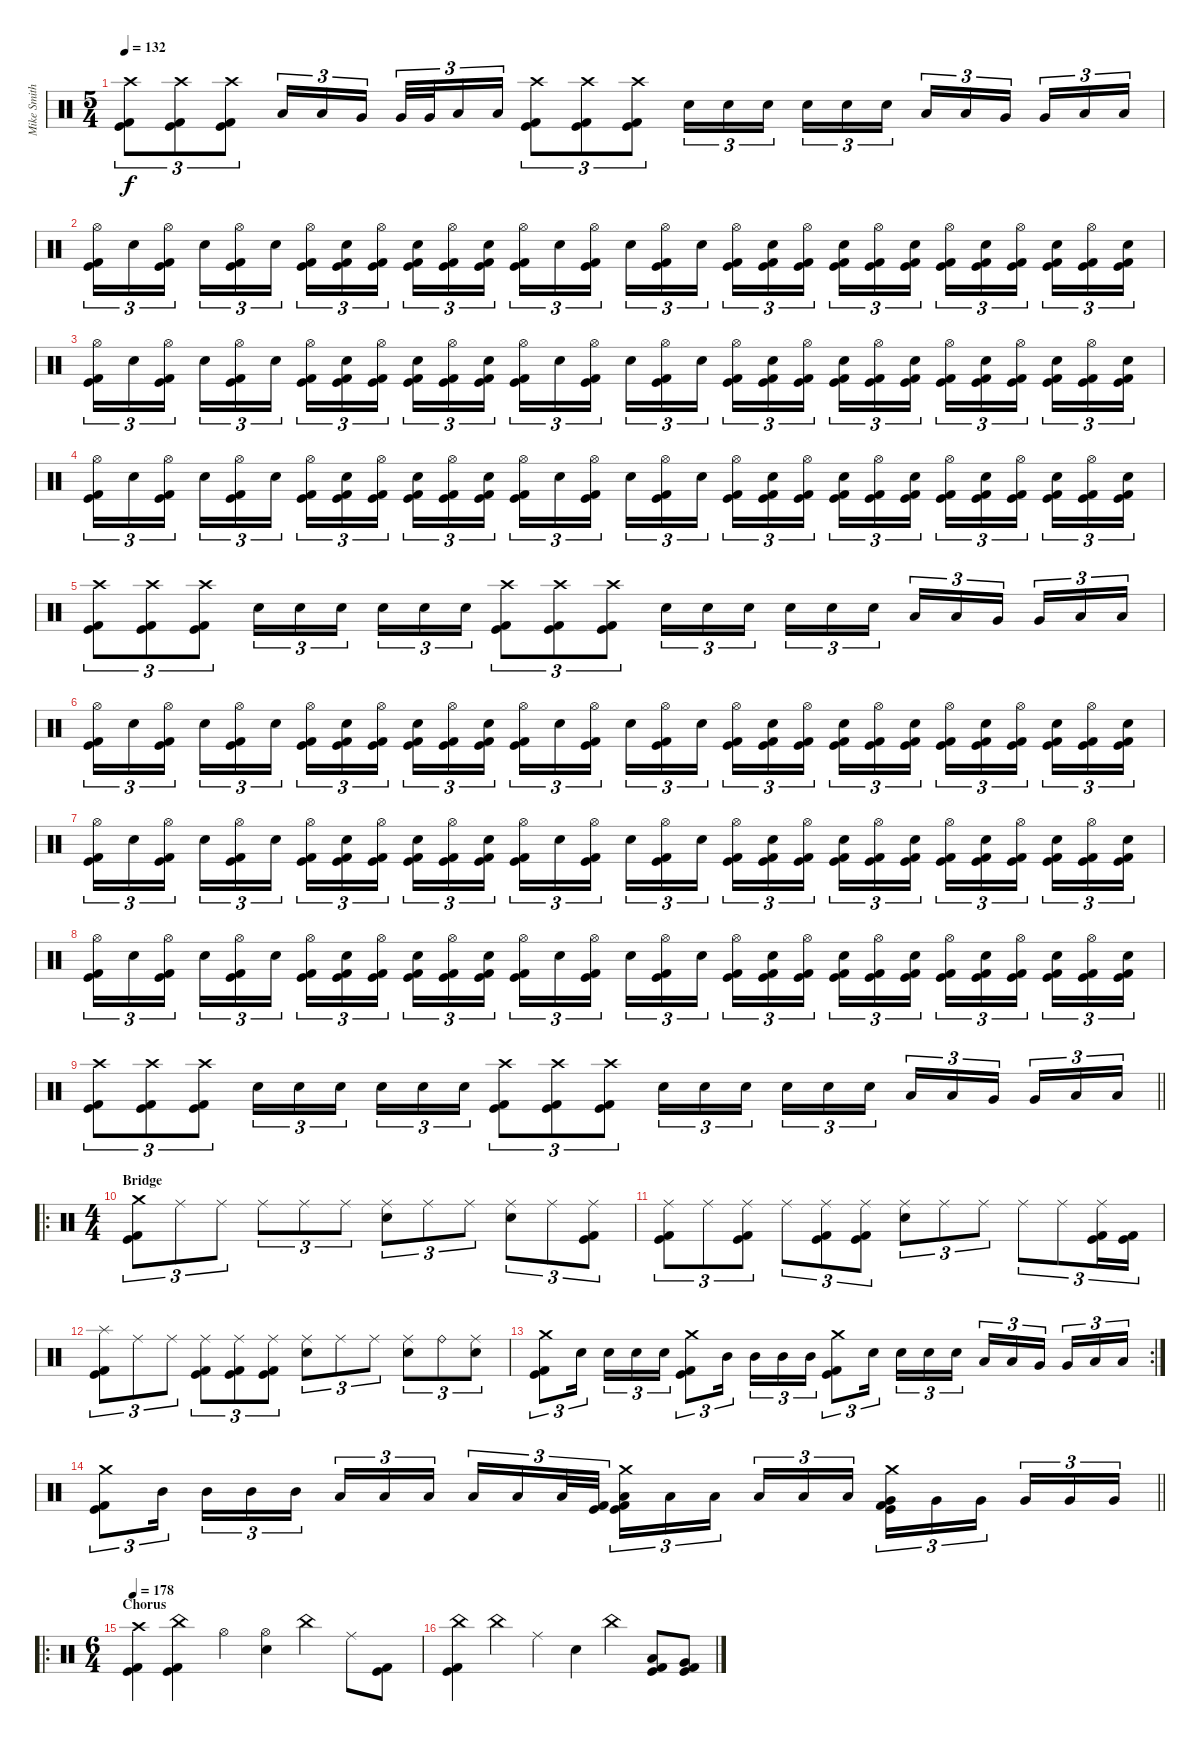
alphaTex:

\track ("Mike Smith" "Mike Smith") {instrument percussion}
\staff {score}
\articulation defaults
\ts (5 4)
\tempo 132
\clef neutral
\ks c
("Crash high (hit)" "Kick (hit)" "Kick (hit) 2").8{tu (3 2) dy f} ("Crash high (hit)" "Kick (hit)" "Kick (hit) 2").8{tu (3 2)} ("Crash high (hit)" "Kick (hit)" "Kick (hit) 2").8{tu (3 2)} "Low Tom (hit)".16{tu (3 2)} "Low Tom (hit)".16{tu (3 2)} "Very Low Tom (hit)".16{tu (3 2) beam splitsecondary} "Very Low Tom (hit)".32{tu (3 2)} "Very Low Tom (hit)".32{tu (3 2)} "Low Floor Tom (hit)".16{tu (3 2)} "Low Floor Tom (hit)".16{tu (3 2)} ("Crash high (hit)" "Kick (hit)" "Kick (hit) 2").8{tu (3 2)} ("Crash high (hit)" "Kick (hit)" "Kick (hit) 2").8{tu (3 2)} ("Crash high (hit)" "Kick (hit)" "Kick (hit) 2").8{tu (3 2)} "Electric Snare (hit)".16{tu (3 2)} "Electric Snare (hit)".16{tu (3 2)} "Electric Snare (hit)".16{tu (3 2) beam splitsecondary} "Electric Snare (hit)".16{tu (3 2)} "Electric Snare (hit)".16{tu (3 2)} "Electric Snare (hit)".16{tu (3 2)} "Low Tom (hit)".16{tu (3 2)} "Low Tom (hit)".16{tu (3 2)} "Very Low Tom (hit)".16{tu (3 2) beam splitsecondary} "Very Low Tom (hit)".16{tu (3 2)} "Low Floor Tom (hit)".16{tu (3 2)} "Low Floor Tom (hit)".16{tu (3 2)} |
("Hi-Hat (open)" "Kick (hit)" "Kick (hit) 2").16{tu (3 2)} "Electric Snare (hit)".16{tu (3 2)} ("Hi-Hat (open)" "Kick (hit)" "Kick (hit) 2").16{tu (3 2) beam splitsecondary} "Electric Snare (hit)".16{tu (3 2)} ("Hi-Hat (open)" "Kick (hit)" "Kick (hit) 2").16{tu (3 2)} "Electric Snare (hit)".16{tu (3 2)} ("Hi-Hat (open)" "Kick (hit)" "Kick (hit) 2").16{tu (3 2)} ("Electric Snare (hit)" "Kick (hit)" "Kick (hit) 2").16{tu (3 2)} ("Hi-Hat (open)" "Kick (hit)" "Kick (hit) 2").16{tu (3 2) beam splitsecondary} ("Electric Snare (hit)" "Kick (hit)" "Kick (hit) 2").16{tu (3 2)} ("Hi-Hat (open)" "Kick (hit)" "Kick (hit) 2").16{tu (3 2)} ("Electric Snare (hit)" "Kick (hit)" "Kick (hit) 2").16{tu (3 2)} ("Hi-Hat (open)" "Kick (hit)" "Kick (hit) 2").16{tu (3 2)} "Electric Snare (hit)".16{tu (3 2)} ("Hi-Hat (open)" "Kick (hit)" "Kick (hit) 2").16{tu (3 2) beam splitsecondary} "Electric Snare (hit)".16{tu (3 2)} ("Hi-Hat (open)" "Kick (hit)" "Kick (hit) 2").16{tu (3 2)} "Electric Snare (hit)".16{tu (3 2)} ("Hi-Hat (open)" "Kick (hit)" "Kick (hit) 2").16{tu (3 2)} ("Electric Snare (hit)" "Kick (hit)" "Kick (hit) 2").16{tu (3 2)} ("Hi-Hat (open)" "Kick (hit)" "Kick (hit) 2").16{tu (3 2) beam splitsecondary} ("Electric Snare (hit)" "Kick (hit)" "Kick (hit) 2").16{tu (3 2)} ("Hi-Hat (open)" "Kick (hit)" "Kick (hit) 2").16{tu (3 2)} ("Electric Snare (hit)" "Kick (hit)" "Kick (hit) 2").16{tu (3 2)} ("Hi-Hat (open)" "Kick (hit)" "Kick (hit) 2").16{tu (3 2)} ("Electric Snare (hit)" "Kick (hit)" "Kick (hit) 2").16{tu (3 2)} ("Hi-Hat (open)" "Kick (hit)" "Kick (hit) 2").16{tu (3 2) beam splitsecondary} ("Electric Snare (hit)" "Kick (hit)" "Kick (hit) 2").16{tu (3 2)} ("Hi-Hat (open)" "Kick (hit)" "Kick (hit) 2").16{tu (3 2)} ("Electric Snare (hit)" "Kick (hit)" "Kick (hit) 2").16{tu (3 2)} |
("Hi-Hat (open)" "Kick (hit)" "Kick (hit) 2").16{tu (3 2)} "Electric Snare (hit)".16{tu (3 2)} ("Hi-Hat (open)" "Kick (hit)" "Kick (hit) 2").16{tu (3 2) beam splitsecondary} "Electric Snare (hit)".16{tu (3 2)} ("Hi-Hat (open)" "Kick (hit)" "Kick (hit) 2").16{tu (3 2)} "Electric Snare (hit)".16{tu (3 2)} ("Hi-Hat (open)" "Kick (hit)" "Kick (hit) 2").16{tu (3 2)} ("Electric Snare (hit)" "Kick (hit)" "Kick (hit) 2").16{tu (3 2)} ("Hi-Hat (open)" "Kick (hit)" "Kick (hit) 2").16{tu (3 2) beam splitsecondary} ("Electric Snare (hit)" "Kick (hit)" "Kick (hit) 2").16{tu (3 2)} ("Hi-Hat (open)" "Kick (hit)" "Kick (hit) 2").16{tu (3 2)} ("Electric Snare (hit)" "Kick (hit)" "Kick (hit) 2").16{tu (3 2)} ("Hi-Hat (open)" "Kick (hit)" "Kick (hit) 2").16{tu (3 2)} "Electric Snare (hit)".16{tu (3 2)} ("Hi-Hat (open)" "Kick (hit)" "Kick (hit) 2").16{tu (3 2) beam splitsecondary} "Electric Snare (hit)".16{tu (3 2)} ("Hi-Hat (open)" "Kick (hit)" "Kick (hit) 2").16{tu (3 2)} "Electric Snare (hit)".16{tu (3 2)} ("Hi-Hat (open)" "Kick (hit)" "Kick (hit) 2").16{tu (3 2)} ("Electric Snare (hit)" "Kick (hit)" "Kick (hit) 2").16{tu (3 2)} ("Hi-Hat (open)" "Kick (hit)" "Kick (hit) 2").16{tu (3 2) beam splitsecondary} ("Electric Snare (hit)" "Kick (hit)" "Kick (hit) 2").16{tu (3 2)} ("Hi-Hat (open)" "Kick (hit)" "Kick (hit) 2").16{tu (3 2)} ("Electric Snare (hit)" "Kick (hit)" "Kick (hit) 2").16{tu (3 2)} ("Hi-Hat (open)" "Kick (hit)" "Kick (hit) 2").16{tu (3 2)} ("Electric Snare (hit)" "Kick (hit)" "Kick (hit) 2").16{tu (3 2)} ("Hi-Hat (open)" "Kick (hit)" "Kick (hit) 2").16{tu (3 2) beam splitsecondary} ("Electric Snare (hit)" "Kick (hit)" "Kick (hit) 2").16{tu (3 2)} ("Hi-Hat (open)" "Kick (hit)" "Kick (hit) 2").16{tu (3 2)} ("Electric Snare (hit)" "Kick (hit)" "Kick (hit) 2").16{tu (3 2)} |
("Hi-Hat (open)" "Kick (hit)" "Kick (hit) 2").16{tu (3 2)} "Electric Snare (hit)".16{tu (3 2)} ("Hi-Hat (open)" "Kick (hit)" "Kick (hit) 2").16{tu (3 2) beam splitsecondary} "Electric Snare (hit)".16{tu (3 2)} ("Hi-Hat (open)" "Kick (hit)" "Kick (hit) 2").16{tu (3 2)} "Electric Snare (hit)".16{tu (3 2)} ("Hi-Hat (open)" "Kick (hit)" "Kick (hit) 2").16{tu (3 2)} ("Electric Snare (hit)" "Kick (hit)" "Kick (hit) 2").16{tu (3 2)} ("Hi-Hat (open)" "Kick (hit)" "Kick (hit) 2").16{tu (3 2) beam splitsecondary} ("Electric Snare (hit)" "Kick (hit)" "Kick (hit) 2").16{tu (3 2)} ("Hi-Hat (open)" "Kick (hit)" "Kick (hit) 2").16{tu (3 2)} ("Electric Snare (hit)" "Kick (hit)" "Kick (hit) 2").16{tu (3 2)} ("Hi-Hat (open)" "Kick (hit)" "Kick (hit) 2").16{tu (3 2)} "Electric Snare (hit)".16{tu (3 2)} ("Hi-Hat (open)" "Kick (hit)" "Kick (hit) 2").16{tu (3 2) beam splitsecondary} "Electric Snare (hit)".16{tu (3 2)} ("Hi-Hat (open)" "Kick (hit)" "Kick (hit) 2").16{tu (3 2)} "Electric Snare (hit)".16{tu (3 2)} ("Hi-Hat (open)" "Kick (hit)" "Kick (hit) 2").16{tu (3 2)} ("Electric Snare (hit)" "Kick (hit)" "Kick (hit) 2").16{tu (3 2)} ("Hi-Hat (open)" "Kick (hit)" "Kick (hit) 2").16{tu (3 2) beam splitsecondary} ("Electric Snare (hit)" "Kick (hit)" "Kick (hit) 2").16{tu (3 2)} ("Hi-Hat (open)" "Kick (hit)" "Kick (hit) 2").16{tu (3 2)} ("Electric Snare (hit)" "Kick (hit)" "Kick (hit) 2").16{tu (3 2)} ("Hi-Hat (open)" "Kick (hit)" "Kick (hit) 2").16{tu (3 2)} ("Electric Snare (hit)" "Kick (hit)" "Kick (hit) 2").16{tu (3 2)} ("Hi-Hat (open)" "Kick (hit)" "Kick (hit) 2").16{tu (3 2) beam splitsecondary} ("Electric Snare (hit)" "Kick (hit)" "Kick (hit) 2").16{tu (3 2)} ("Hi-Hat (open)" "Kick (hit)" "Kick (hit) 2").16{tu (3 2)} ("Electric Snare (hit)" "Kick (hit)" "Kick (hit) 2").16{tu (3 2)} |
("Crash high (hit)" "Kick (hit)" "Kick (hit) 2").8{tu (3 2)} ("Crash high (hit)" "Kick (hit)" "Kick (hit) 2").8{tu (3 2)} ("Crash high (hit)" "Kick (hit)" "Kick (hit) 2").8{tu (3 2)} "Electric Snare (hit)".16{tu (3 2)} "Electric Snare (hit)".16{tu (3 2)} "Electric Snare (hit)".16{tu (3 2) beam splitsecondary} "Electric Snare (hit)".16{tu (3 2)} "Electric Snare (hit)".16{tu (3 2)} "Electric Snare (hit)".16{tu (3 2)} ("Crash high (hit)" "Kick (hit)" "Kick (hit) 2").8{tu (3 2)} ("Crash high (hit)" "Kick (hit)" "Kick (hit) 2").8{tu (3 2)} ("Crash high (hit)" "Kick (hit)" "Kick (hit) 2").8{tu (3 2)} "Electric Snare (hit)".16{tu (3 2)} "Electric Snare (hit)".16{tu (3 2)} "Electric Snare (hit)".16{tu (3 2) beam splitsecondary} "Electric Snare (hit)".16{tu (3 2)} "Electric Snare (hit)".16{tu (3 2)} "Electric Snare (hit)".16{tu (3 2)} "Low Tom (hit)".16{tu (3 2)} "Low Tom (hit)".16{tu (3 2)} "Very Low Tom (hit)".16{tu (3 2) beam splitsecondary} "Very Low Tom (hit)".16{tu (3 2)} "Low Floor Tom (hit)".16{tu (3 2)} "Low Floor Tom (hit)".16{tu (3 2)} |
("Hi-Hat (open)" "Kick (hit)" "Kick (hit) 2").16{tu (3 2)} "Electric Snare (hit)".16{tu (3 2)} ("Hi-Hat (open)" "Kick (hit)" "Kick (hit) 2").16{tu (3 2) beam splitsecondary} "Electric Snare (hit)".16{tu (3 2)} ("Hi-Hat (open)" "Kick (hit)" "Kick (hit) 2").16{tu (3 2)} "Electric Snare (hit)".16{tu (3 2)} ("Hi-Hat (open)" "Kick (hit)" "Kick (hit) 2").16{tu (3 2)} ("Electric Snare (hit)" "Kick (hit)" "Kick (hit) 2").16{tu (3 2)} ("Hi-Hat (open)" "Kick (hit)" "Kick (hit) 2").16{tu (3 2) beam splitsecondary} ("Electric Snare (hit)" "Kick (hit)" "Kick (hit) 2").16{tu (3 2)} ("Hi-Hat (open)" "Kick (hit)" "Kick (hit) 2").16{tu (3 2)} ("Electric Snare (hit)" "Kick (hit)" "Kick (hit) 2").16{tu (3 2)} ("Hi-Hat (open)" "Kick (hit)" "Kick (hit) 2").16{tu (3 2)} "Electric Snare (hit)".16{tu (3 2)} ("Hi-Hat (open)" "Kick (hit)" "Kick (hit) 2").16{tu (3 2) beam splitsecondary} "Electric Snare (hit)".16{tu (3 2)} ("Hi-Hat (open)" "Kick (hit)" "Kick (hit) 2").16{tu (3 2)} "Electric Snare (hit)".16{tu (3 2)} ("Hi-Hat (open)" "Kick (hit)" "Kick (hit) 2").16{tu (3 2)} ("Electric Snare (hit)" "Kick (hit)" "Kick (hit) 2").16{tu (3 2)} ("Hi-Hat (open)" "Kick (hit)" "Kick (hit) 2").16{tu (3 2) beam splitsecondary} ("Electric Snare (hit)" "Kick (hit)" "Kick (hit) 2").16{tu (3 2)} ("Hi-Hat (open)" "Kick (hit)" "Kick (hit) 2").16{tu (3 2)} ("Electric Snare (hit)" "Kick (hit)" "Kick (hit) 2").16{tu (3 2)} ("Hi-Hat (open)" "Kick (hit)" "Kick (hit) 2").16{tu (3 2)} ("Electric Snare (hit)" "Kick (hit)" "Kick (hit) 2").16{tu (3 2)} ("Hi-Hat (open)" "Kick (hit)" "Kick (hit) 2").16{tu (3 2) beam splitsecondary} ("Electric Snare (hit)" "Kick (hit)" "Kick (hit) 2").16{tu (3 2)} ("Hi-Hat (open)" "Kick (hit)" "Kick (hit) 2").16{tu (3 2)} ("Electric Snare (hit)" "Kick (hit)" "Kick (hit) 2").16{tu (3 2)} |
("Hi-Hat (open)" "Kick (hit)" "Kick (hit) 2").16{tu (3 2)} "Electric Snare (hit)".16{tu (3 2)} ("Hi-Hat (open)" "Kick (hit)" "Kick (hit) 2").16{tu (3 2) beam splitsecondary} "Electric Snare (hit)".16{tu (3 2)} ("Hi-Hat (open)" "Kick (hit)" "Kick (hit) 2").16{tu (3 2)} "Electric Snare (hit)".16{tu (3 2)} ("Hi-Hat (open)" "Kick (hit)" "Kick (hit) 2").16{tu (3 2)} ("Electric Snare (hit)" "Kick (hit)" "Kick (hit) 2").16{tu (3 2)} ("Hi-Hat (open)" "Kick (hit)" "Kick (hit) 2").16{tu (3 2) beam splitsecondary} ("Electric Snare (hit)" "Kick (hit)" "Kick (hit) 2").16{tu (3 2)} ("Hi-Hat (open)" "Kick (hit)" "Kick (hit) 2").16{tu (3 2)} ("Electric Snare (hit)" "Kick (hit)" "Kick (hit) 2").16{tu (3 2)} ("Hi-Hat (open)" "Kick (hit)" "Kick (hit) 2").16{tu (3 2)} "Electric Snare (hit)".16{tu (3 2)} ("Hi-Hat (open)" "Kick (hit)" "Kick (hit) 2").16{tu (3 2) beam splitsecondary} "Electric Snare (hit)".16{tu (3 2)} ("Hi-Hat (open)" "Kick (hit)" "Kick (hit) 2").16{tu (3 2)} "Electric Snare (hit)".16{tu (3 2)} ("Hi-Hat (open)" "Kick (hit)" "Kick (hit) 2").16{tu (3 2)} ("Electric Snare (hit)" "Kick (hit)" "Kick (hit) 2").16{tu (3 2)} ("Hi-Hat (open)" "Kick (hit)" "Kick (hit) 2").16{tu (3 2) beam splitsecondary} ("Electric Snare (hit)" "Kick (hit)" "Kick (hit) 2").16{tu (3 2)} ("Hi-Hat (open)" "Kick (hit)" "Kick (hit) 2").16{tu (3 2)} ("Electric Snare (hit)" "Kick (hit)" "Kick (hit) 2").16{tu (3 2)} ("Hi-Hat (open)" "Kick (hit)" "Kick (hit) 2").16{tu (3 2)} ("Electric Snare (hit)" "Kick (hit)" "Kick (hit) 2").16{tu (3 2)} ("Hi-Hat (open)" "Kick (hit)" "Kick (hit) 2").16{tu (3 2) beam splitsecondary} ("Electric Snare (hit)" "Kick (hit)" "Kick (hit) 2").16{tu (3 2)} ("Hi-Hat (open)" "Kick (hit)" "Kick (hit) 2").16{tu (3 2)} ("Electric Snare (hit)" "Kick (hit)" "Kick (hit) 2").16{tu (3 2)} |
("Hi-Hat (open)" "Kick (hit)" "Kick (hit) 2").16{tu (3 2)} "Electric Snare (hit)".16{tu (3 2)} ("Hi-Hat (open)" "Kick (hit)" "Kick (hit) 2").16{tu (3 2) beam splitsecondary} "Electric Snare (hit)".16{tu (3 2)} ("Hi-Hat (open)" "Kick (hit)" "Kick (hit) 2").16{tu (3 2)} "Electric Snare (hit)".16{tu (3 2)} ("Hi-Hat (open)" "Kick (hit)" "Kick (hit) 2").16{tu (3 2)} ("Electric Snare (hit)" "Kick (hit)" "Kick (hit) 2").16{tu (3 2)} ("Hi-Hat (open)" "Kick (hit)" "Kick (hit) 2").16{tu (3 2) beam splitsecondary} ("Electric Snare (hit)" "Kick (hit)" "Kick (hit) 2").16{tu (3 2)} ("Hi-Hat (open)" "Kick (hit)" "Kick (hit) 2").16{tu (3 2)} ("Electric Snare (hit)" "Kick (hit)" "Kick (hit) 2").16{tu (3 2)} ("Hi-Hat (open)" "Kick (hit)" "Kick (hit) 2").16{tu (3 2)} "Electric Snare (hit)".16{tu (3 2)} ("Hi-Hat (open)" "Kick (hit)" "Kick (hit) 2").16{tu (3 2) beam splitsecondary} "Electric Snare (hit)".16{tu (3 2)} ("Hi-Hat (open)" "Kick (hit)" "Kick (hit) 2").16{tu (3 2)} "Electric Snare (hit)".16{tu (3 2)} ("Hi-Hat (open)" "Kick (hit)" "Kick (hit) 2").16{tu (3 2)} ("Electric Snare (hit)" "Kick (hit)" "Kick (hit) 2").16{tu (3 2)} ("Hi-Hat (open)" "Kick (hit)" "Kick (hit) 2").16{tu (3 2) beam splitsecondary} ("Electric Snare (hit)" "Kick (hit)" "Kick (hit) 2").16{tu (3 2)} ("Hi-Hat (open)" "Kick (hit)" "Kick (hit) 2").16{tu (3 2)} ("Electric Snare (hit)" "Kick (hit)" "Kick (hit) 2").16{tu (3 2)} ("Hi-Hat (open)" "Kick (hit)" "Kick (hit) 2").16{tu (3 2)} ("Electric Snare (hit)" "Kick (hit)" "Kick (hit) 2").16{tu (3 2)} ("Hi-Hat (open)" "Kick (hit)" "Kick (hit) 2").16{tu (3 2) beam splitsecondary} ("Electric Snare (hit)" "Kick (hit)" "Kick (hit) 2").16{tu (3 2)} ("Hi-Hat (open)" "Kick (hit)" "Kick (hit) 2").16{tu (3 2)} ("Electric Snare (hit)" "Kick (hit)" "Kick (hit) 2").16{tu (3 2)} |
\barLineRight lightlight
("Crash high (hit)" "Kick (hit)" "Kick (hit) 2").8{tu (3 2)} ("Crash high (hit)" "Kick (hit)" "Kick (hit) 2").8{tu (3 2)} ("Crash high (hit)" "Kick (hit)" "Kick (hit) 2").8{tu (3 2)} "Electric Snare (hit)".16{tu (3 2)} "Electric Snare (hit)".16{tu (3 2)} "Electric Snare (hit)".16{tu (3 2) beam splitsecondary} "Electric Snare (hit)".16{tu (3 2)} "Electric Snare (hit)".16{tu (3 2)} "Electric Snare (hit)".16{tu (3 2)} ("Crash high (hit)" "Kick (hit)" "Kick (hit) 2").8{tu (3 2)} ("Crash high (hit)" "Kick (hit)" "Kick (hit) 2").8{tu (3 2)} ("Crash high (hit)" "Kick (hit)" "Kick (hit) 2").8{tu (3 2)} "Electric Snare (hit)".16{tu (3 2)} "Electric Snare (hit)".16{tu (3 2)} "Electric Snare (hit)".16{tu (3 2) beam splitsecondary} "Electric Snare (hit)".16{tu (3 2)} "Electric Snare (hit)".16{tu (3 2)} "Electric Snare (hit)".16{tu (3 2)} "Low Tom (hit)".16{tu (3 2)} "Low Tom (hit)".16{tu (3 2)} "Very Low Tom (hit)".16{tu (3 2) beam splitsecondary} "Very Low Tom (hit)".16{tu (3 2)} "Low Floor Tom (hit)".16{tu (3 2)} "Low Floor Tom (hit)".16{tu (3 2)} |
\ro
\ts (4 4)
\section ("" "Bridge")
("Crash medium (hit)" "Kick (hit)" "Kick (hit) 2").8{tu (3 2)} "Ride (middle)".8{tu (3 2)} "Ride (middle)".8{tu (3 2)} "Ride (middle)".8{tu (3 2)} "Ride (middle)".8{tu (3 2)} "Ride (middle)".8{tu (3 2)} ("Ride (middle)" "Electric Snare (hit)").8{tu (3 2)} "Ride (middle)".8{tu (3 2)} "Ride (middle)".8{tu (3 2)} ("Ride (middle)" "Electric Snare (hit)").8{tu (3 2)} "Ride (middle)".8{tu (3 2)} ("Ride (middle)" "Kick (hit) 2" "Kick (hit)").8{tu (3 2)} |
("Ride (middle)" "Kick (hit)" "Kick (hit) 2").8{tu (3 2)} "Ride (middle)".8{tu (3 2)} ("Ride (middle)" "Kick (hit)" "Kick (hit) 2").8{tu (3 2)} "Ride (middle)".8{tu (3 2)} ("Ride (middle)" "Kick (hit)" "Kick (hit) 2").8{tu (3 2)} ("Ride (middle)" "Kick (hit)" "Kick (hit) 2").8{tu (3 2)} ("Ride (middle)" "Electric Snare (hit)").8{tu (3 2)} "Ride (middle)".8{tu (3 2)} "Ride (middle)".8{tu (3 2)} "Ride (middle)".8{tu (3 2)} "Ride (middle)".8{tu (3 2)} ("Ride (middle)" "Kick (hit)" "Kick (hit) 2").16{tu (3 2)} ("Kick (hit)" "Kick (hit) 2").16{tu (3 2)} |
("Splash (hit)" "Kick (hit)" "Kick (hit) 2").8{tu (3 2)} "Ride (middle)".8{tu (3 2)} "Ride (middle)".8{tu (3 2)} ("Ride (middle)" "Kick (hit)" "Kick (hit) 2").8{tu (3 2)} ("Ride (middle)" "Kick (hit)" "Kick (hit) 2").8{tu (3 2)} ("Ride (middle)" "Kick (hit)" "Kick (hit) 2").8{tu (3 2)} ("Ride (middle)" "Electric Snare (hit)").8{tu (3 2)} "Ride (middle)".8{tu (3 2)} "Ride (middle)".8{tu (3 2)} ("Ride (middle)" "Electric Snare (hit)").8{tu (3 2)} "Ride (bell)".8{tu (3 2)} ("Ride (middle)" "Electric Snare (hit)").8{tu (3 2)} |
\rc 2
("Crash medium (hit)" "Kick (hit)" "Kick (hit) 2").8{tu (3 2)} "Electric Snare (hit)".16{tu (3 2) beam splitsecondary} "Electric Snare (hit)".16{tu (3 2)} "Electric Snare (hit)".16{tu (3 2)} "Electric Snare (hit)".16{tu (3 2)} ("Crash medium (hit)" "Kick (hit)" "Kick (hit) 2").8{tu (3 2)} "Mid Tom (hit)".16{tu (3 2) beam splitsecondary} "Mid Tom (hit)".16{tu (3 2)} "Mid Tom (hit)".16{tu (3 2)} "Mid Tom (hit)".16{tu (3 2)} ("Crash medium (hit)" "Kick (hit)" "Kick (hit) 2").8{tu (3 2)} "Electric Snare (hit)".16{tu (3 2) beam splitsecondary} "Electric Snare (hit)".16{tu (3 2)} "Electric Snare (hit)".16{tu (3 2)} "Electric Snare (hit)".16{tu (3 2)} "Low Tom (hit)".16{tu (3 2)} "Low Tom (hit)".16{tu (3 2)} "Very Low Tom (hit)".16{tu (3 2) beam splitsecondary} "Very Low Tom (hit)".16{tu (3 2)} "Low Floor Tom (hit)".16{tu (3 2)} "Low Floor Tom (hit)".16{tu (3 2)} |
\barLineRight lightlight
("Crash medium (hit)" "Kick (hit)" "Kick (hit) 2").8{tu (3 2)} "Mid Tom (hit)".16{tu (3 2) beam splitsecondary} "Mid Tom (hit)".16{tu (3 2)} "Mid Tom (hit)".16{tu (3 2)} "Mid Tom (hit)".16{tu (3 2)} "Low Tom (hit)".16{tu (3 2)} "Low Tom (hit)".16{tu (3 2)} "Low Tom (hit)".16{tu (3 2) beam splitsecondary} "Low Tom (hit)".16{tu (3 2)} "Low Tom (hit)".16{tu (3 2)} "Low Tom (hit)".32{tu (3 2)} ("Kick (hit)" "Kick (hit) 2").32{tu (3 2)} ("Crash medium (hit)" "Low Tom (hit)" "Kick (hit)" "Kick (hit) 2").16{tu (3 2)} "Low Tom (hit)".16{tu (3 2)} "Low Tom (hit)".16{tu (3 2) beam splitsecondary} "Low Tom (hit)".16{tu (3 2)} "Low Tom (hit)".16{tu (3 2)} "Low Tom (hit)".16{tu (3 2)} ("Crash medium (hit)" "Very Low Tom (hit)" "Kick (hit)" "Kick (hit) 2").16{tu (3 2)} "Very Low Tom (hit)".16{tu (3 2)} "Very Low Tom (hit)".16{tu (3 2) beam splitsecondary} "Very Low Tom (hit)".16{tu (3 2)} "Very Low Tom (hit)".16{tu (3 2)} "Very Low Tom (hit)".16{tu (3 2)} |
\ro
\ts (6 4)
\section ("" "Chorus")
\tempo 178
("Crash high (hit)" "Kick (hit)" "Kick (hit) 2").4 ("China (hit)" "Kick (hit)" "Kick (hit) 2").4 "Hi-Hat (open)".4 ("Hi-Hat (open)" "Electric Snare (hit)").4 "China (hit)".4 "Ride (middle)".8 ("Kick (hit)" "Kick (hit) 2").8 |
("China (hit)" "Kick (hit)" "Kick (hit) 2").4 "China (hit)".4 "Ride (middle)".4 "Electric Snare (hit)".4 "China (hit)".4 ("Low Tom (hit)" "Kick (hit)" "Kick (hit) 2").8 ("Very Low Tom (hit)" "Kick (hit)" "Kick (hit) 2").8
